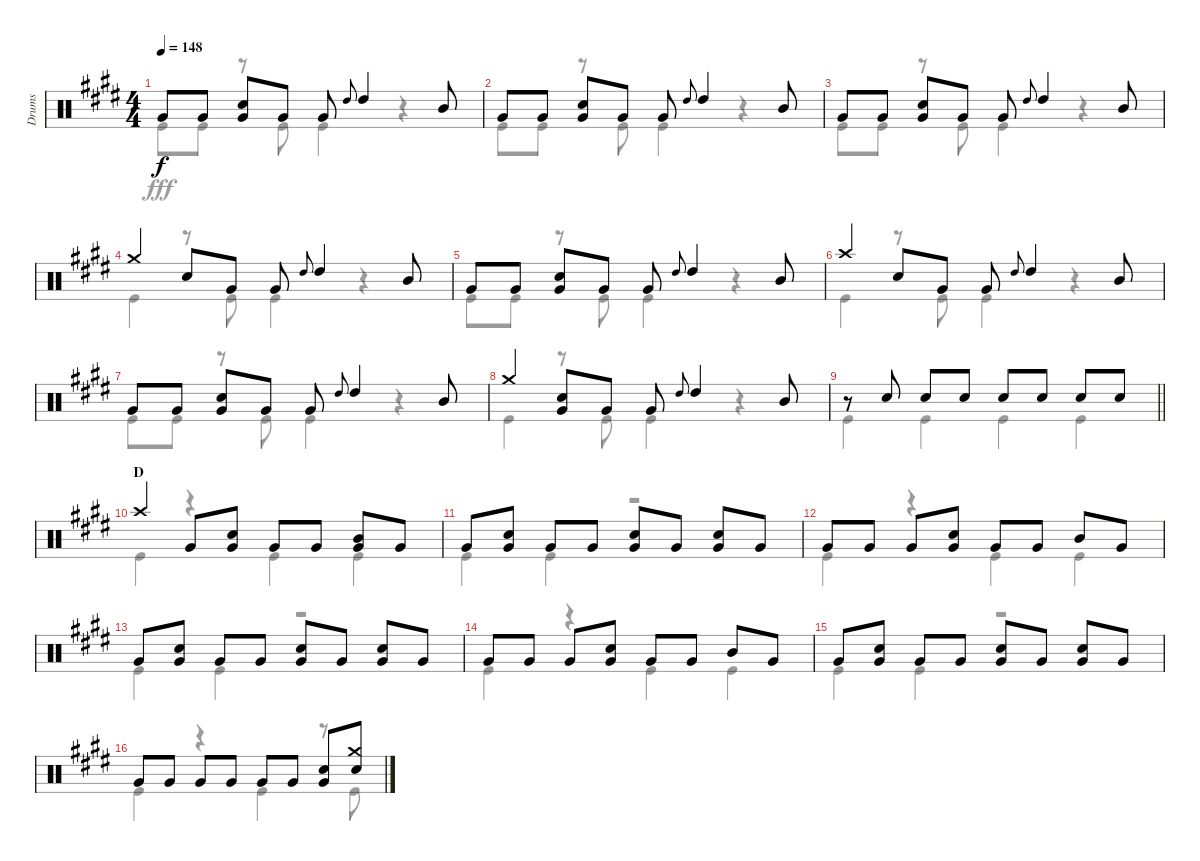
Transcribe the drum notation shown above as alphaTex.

\track ("Drums" "Drums") {instrument percussion}
\staff {score}
\articulation defaults
\voice
\ts (4 4)
\tempo 148
\clef neutral
\ks e "Very Low Tom (hit)".8{dy f} "Very Low Tom (hit)".8
("Snare (hit) 2" "Very Low Tom (hit)").8 "Very Low Tom (hit)".8 "Very Low Tom (hit)".8 "High Tom (hit)".8{gr onbeat} "High Tom (hit)".4 "Mid Tom (hit)".8 |
"Very Low Tom (hit)".8 "Very Low Tom (hit)".8 ("Snare (hit) 2" "Very Low Tom (hit)").8 "Very Low Tom (hit)".8 "Very Low Tom (hit)".8 "High Tom (hit)".8{gr onbeat} "High Tom (hit)".4 "Mid Tom (hit)".8 |
"Very Low Tom (hit)".8 "Very Low Tom (hit)".8 ("Snare (hit) 2" "Very Low Tom (hit)").8 "Very Low Tom (hit)".8 "Very Low Tom (hit)".8 "High Tom (hit)".8{gr onbeat} "High Tom (hit)".4 "Mid Tom (hit)".8 |
"Crash medium (hit)".4 "Snare (hit) 2".8 "Very Low Tom (hit)".8 "Very Low Tom (hit)".8 "High Tom (hit)".8{gr onbeat} "High Tom (hit)".4 "Mid Tom (hit)".8 |
"Very Low Tom (hit)".8 "Very Low Tom (hit)".8 ("Snare (hit) 2" "Very Low Tom (hit)").8 "Very Low Tom (hit)".8 "Very Low Tom (hit)".8 "High Tom (hit)".8{gr onbeat} "High Tom (hit)".4 "Mid Tom (hit)".8 |
"Crash high (hit)".4 "Snare (hit) 2".8 "Very Low Tom (hit)".8 "Very Low Tom (hit)".8 "High Tom (hit)".8{gr onbeat} "High Tom (hit)".4 "Mid Tom (hit)".8 |
"Very Low Tom (hit)".8 "Very Low Tom (hit)".8 ("Snare (hit) 2" "Very Low Tom (hit)").8 "Very Low Tom (hit)".8 "Very Low Tom (hit)".8 "High Tom (hit)".8{gr onbeat} "High Tom (hit)".4 "Mid Tom (hit)".8 |
"Crash medium (hit)".4 ("Snare (hit) 2" "Very Low Tom (hit)").8 "Very Low Tom (hit)".8 "Very Low Tom (hit)".8 "High Tom (hit)".8{gr onbeat} "High Tom (hit)".4 "Mid Tom (hit)".8 |
\barLineRight lightlight
r.8 "Snare (hit) 2".8 "Snare (hit) 2".8 "Snare (hit) 2".8 "Snare (hit) 2".8 "Snare (hit) 2".8 "Snare (hit) 2".8 "Snare (hit) 2".8 |
\section ("" "D")
"Crash high (hit)".4 "Very Low Tom (hit)".8 ("Snare (hit) 2" "Very Low Tom (hit)").8 "Very Low Tom (hit)".8 "Very Low Tom (hit)".8 ("Mid Tom (hit)" "Very Low Tom (hit)").8 "Very Low Tom (hit)".8 |
"Very Low Tom (hit)".8 ("Snare (hit) 2" "Very Low Tom (hit)").8 "Very Low Tom (hit)".8 "Very Low Tom (hit)".8 ("Snare (hit) 2" "Very Low Tom (hit)").8 "Very Low Tom (hit)".8 ("Snare (hit) 2" "Very Low Tom (hit)").8 "Very Low Tom (hit)".8 |
"Very Low Tom (hit)".8 "Very Low Tom (hit)".8 "Very Low Tom (hit)".8 ("Snare (hit) 2" "Very Low Tom (hit)").8 "Very Low Tom (hit)".8 "Very Low Tom (hit)".8 "Mid Tom (hit)".8 "Very Low Tom (hit)".8 |
"Very Low Tom (hit)".8 ("Snare (hit) 2" "Very Low Tom (hit)").8 "Very Low Tom (hit)".8 "Very Low Tom (hit)".8 ("Snare (hit) 2" "Very Low Tom (hit)").8 "Very Low Tom (hit)".8 ("Snare (hit) 2" "Very Low Tom (hit)").8 "Very Low Tom (hit)".8 |
"Very Low Tom (hit)".8 "Very Low Tom (hit)".8 "Very Low Tom (hit)".8 ("Snare (hit) 2" "Very Low Tom (hit)").8 "Very Low Tom (hit)".8 "Very Low Tom (hit)".8 "Mid Tom (hit)".8 "Very Low Tom (hit)".8 |
"Very Low Tom (hit)".8 ("Snare (hit) 2" "Very Low Tom (hit)").8 "Very Low Tom (hit)".8 "Very Low Tom (hit)".8 ("Snare (hit) 2" "Very Low Tom (hit)").8 "Very Low Tom (hit)".8 ("Snare (hit) 2" "Very Low Tom (hit)").8 "Very Low Tom (hit)".8 |
"Very Low Tom (hit)".8 "Very Low Tom (hit)".8 "Very Low Tom (hit)".8 "Very Low Tom (hit)".8 "Very Low Tom (hit)".8 "Very Low Tom (hit)".8 ("Snare (hit) 2" "Very Low Tom (hit)").8 ("Crash medium (hit)" "Snare (hit) 2").8
\voice
\clef neutral
\ottava regular
\simile none
\ks e "Kick (hit)".8{dy fff} "Kick (hit)".8
r.8 "Kick (hit)".8 "Kick (hit)".4 r.4 |
"Kick (hit)".8 "Kick (hit)".8 r.8 "Kick (hit)".8 "Kick (hit)".4 r.4 |
"Kick (hit)".8 "Kick (hit)".8 r.8 "Kick (hit)".8 "Kick (hit)".4 r.4 |
"Kick (hit)".4 r.8 "Kick (hit)".8 "Kick (hit)".4 r.4 |
"Kick (hit)".8 "Kick (hit)".8 r.8 "Kick (hit)".8 "Kick (hit)".4 r.4 |
"Kick (hit)".4 r.8 "Kick (hit)".8 "Kick (hit)".4 r.4 |
"Kick (hit)".8 "Kick (hit)".8 r.8 "Kick (hit)".8 "Kick (hit)".4 r.4 |
"Kick (hit)".4 r.8 "Kick (hit)".8 "Kick (hit)".4 r.4 |
\barLineRight lightlight "Kick (hit)".4 "Kick (hit)".4 "Kick (hit)".4 "Kick (hit)".4
|
"Kick (hit)".4 r.4 "Kick (hit)".4 "Kick (hit)".4 |
"Kick (hit)".4 "Kick (hit)".4 r.2 |
"Kick (hit)".4 r.4 "Kick (hit)".4 "Kick (hit)".4 |
"Kick (hit)".4 "Kick (hit)".4 r.2 |
"Kick (hit)".4 r.4 "Kick (hit)".4 "Kick (hit)".4 |
"Kick (hit)".4 "Kick (hit)".4 r.2 |
"Kick (hit)".4 r.4 "Kick (hit)".4 r.8 "Kick (hit)".8
